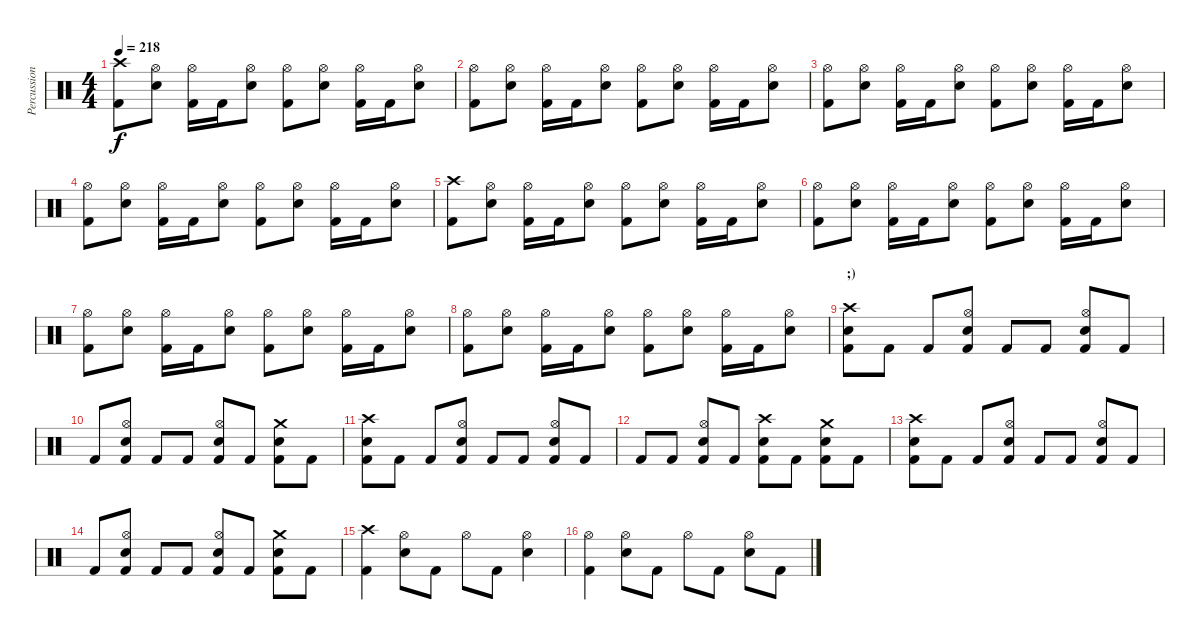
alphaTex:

\track ("Percussion" "Percussion") {instrument percussion}
\staff {score}
\articulation defaults
\ts (4 4)
\tempo 218
\clef neutral
\ks c
("Crash high (hit)" "Kick (hit) 2").8{dy f} ("Hi-Hat (open)" "Electric Snare (hit)").8 ("Hi-Hat (open)" "Kick (hit) 2").16 "Kick (hit) 2".16 ("Hi-Hat (open)" "Electric Snare (hit)").8 ("Hi-Hat (open)" "Kick (hit) 2").8 ("Hi-Hat (open)" "Electric Snare (hit)").8 ("Hi-Hat (open)" "Kick (hit) 2").16 "Kick (hit) 2".16 ("Hi-Hat (open)" "Electric Snare (hit)").8 |
("Hi-Hat (open)" "Kick (hit) 2").8 ("Hi-Hat (open)" "Electric Snare (hit)").8 ("Hi-Hat (open)" "Kick (hit) 2").16 "Kick (hit) 2".16 ("Hi-Hat (open)" "Electric Snare (hit)").8 ("Hi-Hat (open)" "Kick (hit) 2").8 ("Hi-Hat (open)" "Electric Snare (hit)").8 ("Hi-Hat (open)" "Kick (hit) 2").16 "Kick (hit) 2".16 ("Hi-Hat (open)" "Electric Snare (hit)").8 |
("Hi-Hat (open)" "Kick (hit) 2").8 ("Hi-Hat (open)" "Electric Snare (hit)").8 ("Hi-Hat (open)" "Kick (hit) 2").16 "Kick (hit) 2".16 ("Hi-Hat (open)" "Electric Snare (hit)").8 ("Hi-Hat (open)" "Kick (hit) 2").8 ("Hi-Hat (open)" "Electric Snare (hit)").8 ("Hi-Hat (open)" "Kick (hit) 2").16 "Kick (hit) 2".16 ("Hi-Hat (open)" "Electric Snare (hit)").8 |
("Hi-Hat (open)" "Kick (hit) 2").8 ("Hi-Hat (open)" "Electric Snare (hit)").8 ("Hi-Hat (open)" "Kick (hit) 2").16 "Kick (hit) 2".16 ("Hi-Hat (open)" "Electric Snare (hit)").8 ("Hi-Hat (open)" "Kick (hit) 2").8 ("Hi-Hat (open)" "Electric Snare (hit)").8 ("Hi-Hat (open)" "Kick (hit) 2").16 "Kick (hit) 2".16 ("Hi-Hat (open)" "Electric Snare (hit)").8 |
("Crash high (hit)" "Kick (hit) 2").8 ("Hi-Hat (open)" "Electric Snare (hit)").8 ("Hi-Hat (open)" "Kick (hit) 2").16 "Kick (hit) 2".16 ("Hi-Hat (open)" "Electric Snare (hit)").8 ("Hi-Hat (open)" "Kick (hit) 2").8 ("Hi-Hat (open)" "Electric Snare (hit)").8 ("Hi-Hat (open)" "Kick (hit) 2").16 "Kick (hit) 2".16 ("Hi-Hat (open)" "Electric Snare (hit)").8 |
("Hi-Hat (open)" "Kick (hit) 2").8 ("Hi-Hat (open)" "Electric Snare (hit)").8 ("Hi-Hat (open)" "Kick (hit) 2").16 "Kick (hit) 2".16 ("Hi-Hat (open)" "Electric Snare (hit)").8 ("Hi-Hat (open)" "Kick (hit) 2").8 ("Hi-Hat (open)" "Electric Snare (hit)").8 ("Hi-Hat (open)" "Kick (hit) 2").16 "Kick (hit) 2".16 ("Hi-Hat (open)" "Electric Snare (hit)").8 |
("Hi-Hat (open)" "Kick (hit) 2").8 ("Hi-Hat (open)" "Electric Snare (hit)").8 ("Hi-Hat (open)" "Kick (hit) 2").16 "Kick (hit) 2".16 ("Hi-Hat (open)" "Electric Snare (hit)").8 ("Hi-Hat (open)" "Kick (hit) 2").8 ("Hi-Hat (open)" "Electric Snare (hit)").8 ("Hi-Hat (open)" "Kick (hit) 2").16 "Kick (hit) 2".16 ("Hi-Hat (open)" "Electric Snare (hit)").8 |
("Hi-Hat (open)" "Kick (hit) 2").8 ("Hi-Hat (open)" "Electric Snare (hit)").8 ("Hi-Hat (open)" "Kick (hit) 2").16 "Kick (hit) 2".16 ("Hi-Hat (open)" "Electric Snare (hit)").8 ("Hi-Hat (open)" "Kick (hit) 2").8 ("Hi-Hat (open)" "Electric Snare (hit)").8 ("Hi-Hat (open)" "Kick (hit) 2").16 "Kick (hit) 2".16 ("Hi-Hat (open)" "Electric Snare (hit)").8 |
\section ("" " ;)")
("Crash high (hit)" "Electric Snare (hit)" "Kick (hit) 2").8 "Kick (hit) 2".8 "Kick (hit) 2".8 ("Hi-Hat (open)" "Electric Snare (hit)" "Kick (hit) 2").8 "Kick (hit) 2".8 "Kick (hit) 2".8 ("Hi-Hat (open)" "Electric Snare (hit)" "Kick (hit) 2").8 "Kick (hit) 2".8 |
"Kick (hit) 2".8 ("Hi-Hat (open)" "Electric Snare (hit)" "Kick (hit) 2").8 "Kick (hit) 2".8 "Kick (hit) 2".8 ("Hi-Hat (open)" "Electric Snare (hit)" "Kick (hit) 2").8 "Kick (hit) 2".8 ("Crash medium (hit)" "Electric Snare (hit)" "Kick (hit) 2").8 "Kick (hit) 2".8 |
("Crash high (hit)" "Electric Snare (hit)" "Kick (hit) 2").8 "Kick (hit) 2".8 "Kick (hit) 2".8 ("Hi-Hat (open)" "Electric Snare (hit)" "Kick (hit) 2").8 "Kick (hit) 2".8 "Kick (hit) 2".8 ("Hi-Hat (open)" "Electric Snare (hit)" "Kick (hit) 2").8 "Kick (hit) 2".8 |
"Kick (hit) 2".8 "Kick (hit) 2".8 ("Hi-Hat (open)" "Electric Snare (hit)" "Kick (hit) 2").8 "Kick (hit) 2".8 ("Crash high (hit)" "Electric Snare (hit)" "Kick (hit) 2").8 "Kick (hit) 2".8 ("Crash medium (hit)" "Electric Snare (hit)" "Kick (hit) 2").8 "Kick (hit) 2".8 |
("Crash high (hit)" "Electric Snare (hit)" "Kick (hit) 2").8 "Kick (hit) 2".8 "Kick (hit) 2".8 ("Hi-Hat (open)" "Electric Snare (hit)" "Kick (hit) 2").8 "Kick (hit) 2".8 "Kick (hit) 2".8 ("Hi-Hat (open)" "Electric Snare (hit)" "Kick (hit) 2").8 "Kick (hit) 2".8 |
"Kick (hit) 2".8 ("Hi-Hat (open)" "Electric Snare (hit)" "Kick (hit) 2").8 "Kick (hit) 2".8 "Kick (hit) 2".8 ("Hi-Hat (open)" "Electric Snare (hit)" "Kick (hit) 2").8 "Kick (hit) 2".8 ("Crash medium (hit)" "Electric Snare (hit)" "Kick (hit) 2").8 "Kick (hit) 2".8 |
("Crash high (hit)" "Kick (hit) 2").4 ("Hi-Hat (open)" "Electric Snare (hit)").8 "Kick (hit) 2".8 "Hi-Hat (open)".8 "Kick (hit) 2".8 ("Hi-Hat (open)" "Electric Snare (hit)").4 |
("Hi-Hat (open)" "Kick (hit) 2").4 ("Hi-Hat (open)" "Electric Snare (hit)").8 "Kick (hit) 2".8 "Hi-Hat (open)".8 "Kick (hit) 2".8 ("Hi-Hat (open)" "Electric Snare (hit)").8 "Kick (hit) 2".8
